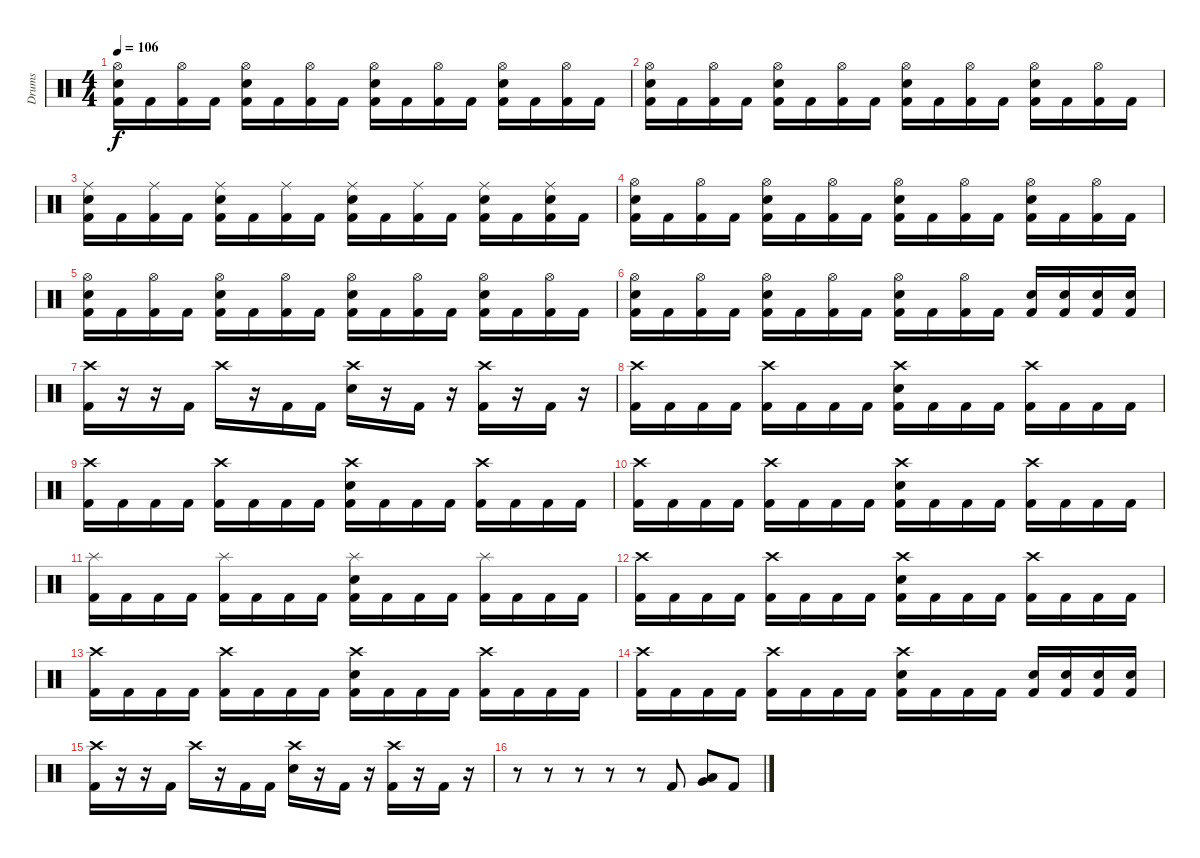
\track ("Drums" "Drums") {instrument percussion}
\staff {score}
\articulation defaults
\ts (4 4)
\tempo 106
\clef neutral
\ks c
("Hi-Hat (open)" "Electric Snare (hit)" "Kick (hit) 2").16{dy f} "Kick (hit) 2".16 ("Hi-Hat (open)" "Kick (hit) 2").16 "Kick (hit) 2".16 ("Hi-Hat (open)" "Electric Snare (hit)" "Kick (hit) 2").16 "Kick (hit) 2".16 ("Hi-Hat (open)" "Kick (hit) 2").16 "Kick (hit) 2".16 ("Hi-Hat (open)" "Electric Snare (hit)" "Kick (hit) 2").16 "Kick (hit) 2".16 ("Hi-Hat (open)" "Kick (hit) 2").16 "Kick (hit) 2".16 ("Hi-Hat (open)" "Electric Snare (hit)" "Kick (hit) 2").16 "Kick (hit) 2".16 ("Hi-Hat (open)" "Kick (hit) 2").16 "Kick (hit) 2".16 |
("Hi-Hat (open)" "Electric Snare (hit)" "Kick (hit) 2").16 "Kick (hit) 2".16 ("Hi-Hat (open)" "Kick (hit) 2").16 "Kick (hit) 2".16 ("Hi-Hat (open)" "Electric Snare (hit)" "Kick (hit) 2").16 "Kick (hit) 2".16 ("Hi-Hat (open)" "Kick (hit) 2").16 "Kick (hit) 2".16 ("Hi-Hat (open)" "Electric Snare (hit)" "Kick (hit) 2").16 "Kick (hit) 2".16 ("Hi-Hat (open)" "Kick (hit) 2").16 "Kick (hit) 2".16 ("Hi-Hat (open)" "Electric Snare (hit)" "Kick (hit) 2").16 "Kick (hit) 2".16 ("Hi-Hat (open)" "Kick (hit) 2").16 "Kick (hit) 2".16 |
("Ride (middle)" "Electric Snare (hit)" "Kick (hit) 2").16 "Kick (hit) 2".16 ("Ride (middle)" "Kick (hit) 2").16 "Kick (hit) 2".16 ("Ride (middle)" "Electric Snare (hit)" "Kick (hit) 2").16 "Kick (hit) 2".16 ("Ride (middle)" "Kick (hit) 2").16 "Kick (hit) 2".16 ("Ride (middle)" "Electric Snare (hit)" "Kick (hit) 2").16 "Kick (hit) 2".16 ("Ride (middle)" "Kick (hit) 2").16 "Kick (hit) 2".16 ("Ride (middle)" "Electric Snare (hit)" "Kick (hit) 2").16 "Kick (hit) 2".16 ("Ride (middle)" "Electric Snare (hit)" "Kick (hit) 2").16 "Kick (hit) 2".16 |
("Hi-Hat (open)" "Electric Snare (hit)" "Kick (hit) 2").16 "Kick (hit) 2".16 ("Hi-Hat (open)" "Kick (hit) 2").16 "Kick (hit) 2".16 ("Hi-Hat (open)" "Electric Snare (hit)" "Kick (hit) 2").16 "Kick (hit) 2".16 ("Hi-Hat (open)" "Kick (hit) 2").16 "Kick (hit) 2".16 ("Hi-Hat (open)" "Electric Snare (hit)" "Kick (hit) 2").16 "Kick (hit) 2".16 ("Hi-Hat (open)" "Kick (hit) 2").16 "Kick (hit) 2".16 ("Hi-Hat (open)" "Electric Snare (hit)" "Kick (hit) 2").16 "Kick (hit) 2".16 ("Hi-Hat (open)" "Kick (hit) 2").16 "Kick (hit) 2".16 |
("Hi-Hat (open)" "Electric Snare (hit)" "Kick (hit) 2").16 "Kick (hit) 2".16 ("Hi-Hat (open)" "Kick (hit) 2").16 "Kick (hit) 2".16 ("Hi-Hat (open)" "Electric Snare (hit)" "Kick (hit) 2").16 "Kick (hit) 2".16 ("Hi-Hat (open)" "Kick (hit) 2").16 "Kick (hit) 2".16 ("Hi-Hat (open)" "Electric Snare (hit)" "Kick (hit) 2").16 "Kick (hit) 2".16 ("Hi-Hat (open)" "Kick (hit) 2").16 "Kick (hit) 2".16 ("Hi-Hat (open)" "Electric Snare (hit)" "Kick (hit) 2").16 "Kick (hit) 2".16 ("Hi-Hat (open)" "Kick (hit) 2").16 "Kick (hit) 2".16 |
("Hi-Hat (open)" "Electric Snare (hit)" "Kick (hit) 2").16 "Kick (hit) 2".16 ("Hi-Hat (open)" "Kick (hit) 2").16 "Kick (hit) 2".16 ("Hi-Hat (open)" "Electric Snare (hit)" "Kick (hit) 2").16 "Kick (hit) 2".16 ("Hi-Hat (open)" "Kick (hit) 2").16 "Kick (hit) 2".16 ("Hi-Hat (open)" "Electric Snare (hit)" "Kick (hit) 2").16 "Kick (hit) 2".16 ("Hi-Hat (open)" "Kick (hit) 2").16 "Kick (hit) 2".16 ("Electric Snare (hit)" "Kick (hit) 2").16 ("Electric Snare (hit)" "Kick (hit) 2").16 ("Electric Snare (hit)" "Kick (hit) 2").16 ("Electric Snare (hit)" "Kick (hit) 2").16 |
("Crash high (hit)" "Kick (hit) 2").16 r.16 r.16 "Kick (hit) 2".16 "Crash high (hit)".16 r.16 "Kick (hit) 2".16 "Kick (hit) 2".16 ("Crash high (hit)" "Electric Snare (hit)").16 r.16 "Kick (hit) 2".16 r.16 ("Crash high (hit)" "Kick (hit) 2").16 r.16 "Kick (hit) 2".16 r.16 |
("Crash high (hit)" "Kick (hit) 2").16 "Kick (hit) 2".16 "Kick (hit) 2".16 "Kick (hit) 2".16 ("Crash high (hit)" "Kick (hit) 2").16 "Kick (hit) 2".16 "Kick (hit) 2".16 "Kick (hit) 2".16 ("Crash high (hit)" "Electric Snare (hit)" "Kick (hit) 2").16 "Kick (hit) 2".16 "Kick (hit) 2".16 "Kick (hit) 2".16 ("Crash high (hit)" "Kick (hit) 2").16 "Kick (hit) 2".16 "Kick (hit) 2".16 "Kick (hit) 2".16 |
("Crash high (hit)" "Kick (hit) 2").16 "Kick (hit) 2".16 "Kick (hit) 2".16 "Kick (hit) 2".16 ("Crash high (hit)" "Kick (hit) 2").16 "Kick (hit) 2".16 "Kick (hit) 2".16 "Kick (hit) 2".16 ("Crash high (hit)" "Electric Snare (hit)" "Kick (hit) 2").16 "Kick (hit) 2".16 "Kick (hit) 2".16 "Kick (hit) 2".16 ("Crash high (hit)" "Kick (hit) 2").16 "Kick (hit) 2".16 "Kick (hit) 2".16 "Kick (hit) 2".16 |
("Crash high (hit)" "Kick (hit) 2").16 "Kick (hit) 2".16 "Kick (hit) 2".16 "Kick (hit) 2".16 ("Crash high (hit)" "Kick (hit) 2").16 "Kick (hit) 2".16 "Kick (hit) 2".16 "Kick (hit) 2".16 ("Crash high (hit)" "Electric Snare (hit)" "Kick (hit) 2").16 "Kick (hit) 2".16 "Kick (hit) 2".16 "Kick (hit) 2".16 ("Crash high (hit)" "Kick (hit) 2").16 "Kick (hit) 2".16 "Kick (hit) 2".16 "Kick (hit) 2".16 |
("Splash (hit)" "Kick (hit) 2").16 "Kick (hit) 2".16 "Kick (hit) 2".16 "Kick (hit) 2".16 ("Splash (hit)" "Kick (hit) 2").16 "Kick (hit) 2".16 "Kick (hit) 2".16 "Kick (hit) 2".16 ("Splash (hit)" "Electric Snare (hit)" "Kick (hit) 2").16 "Kick (hit) 2".16 "Kick (hit) 2".16 "Kick (hit) 2".16 ("Splash (hit)" "Kick (hit) 2").16 "Kick (hit) 2".16 "Kick (hit) 2".16 "Kick (hit) 2".16 |
("Crash high (hit)" "Kick (hit) 2").16 "Kick (hit) 2".16 "Kick (hit) 2".16 "Kick (hit) 2".16 ("Crash high (hit)" "Kick (hit) 2").16 "Kick (hit) 2".16 "Kick (hit) 2".16 "Kick (hit) 2".16 ("Crash high (hit)" "Electric Snare (hit)" "Kick (hit) 2").16 "Kick (hit) 2".16 "Kick (hit) 2".16 "Kick (hit) 2".16 ("Crash high (hit)" "Kick (hit) 2").16 "Kick (hit) 2".16 "Kick (hit) 2".16 "Kick (hit) 2".16 |
("Crash high (hit)" "Kick (hit) 2").16 "Kick (hit) 2".16 "Kick (hit) 2".16 "Kick (hit) 2".16 ("Crash high (hit)" "Kick (hit) 2").16 "Kick (hit) 2".16 "Kick (hit) 2".16 "Kick (hit) 2".16 ("Crash high (hit)" "Electric Snare (hit)" "Kick (hit) 2").16 "Kick (hit) 2".16 "Kick (hit) 2".16 "Kick (hit) 2".16 ("Crash high (hit)" "Kick (hit) 2").16 "Kick (hit) 2".16 "Kick (hit) 2".16 "Kick (hit) 2".16 |
("Crash high (hit)" "Kick (hit) 2").16 "Kick (hit) 2".16 "Kick (hit) 2".16 "Kick (hit) 2".16 ("Crash high (hit)" "Kick (hit) 2").16 "Kick (hit) 2".16 "Kick (hit) 2".16 "Kick (hit) 2".16 ("Crash high (hit)" "Electric Snare (hit)" "Kick (hit) 2").16 "Kick (hit) 2".16 "Kick (hit) 2".16 "Kick (hit) 2".16 ("Electric Snare (hit)" "Kick (hit) 2").16 ("Electric Snare (hit)" "Kick (hit) 2").16 ("Electric Snare (hit)" "Kick (hit) 2").16 ("Electric Snare (hit)" "Kick (hit) 2").16 |
("Crash high (hit)" "Kick (hit) 2").16 r.16 r.16 "Kick (hit) 2".16 "Crash high (hit)".16 r.16 "Kick (hit) 2".16 "Kick (hit) 2".16 ("Crash high (hit)" "Electric Snare (hit)").16 r.16 "Kick (hit) 2".16 r.16 ("Crash high (hit)" "Kick (hit) 2").16 r.16 "Kick (hit) 2".16 r.16 |
r.8 r.8 r.8 r.8 r.8 "Kick (hit) 2".8 ("Low Floor Tom (hit)" "Very Low Tom (hit)").8 "Kick (hit) 2".8
